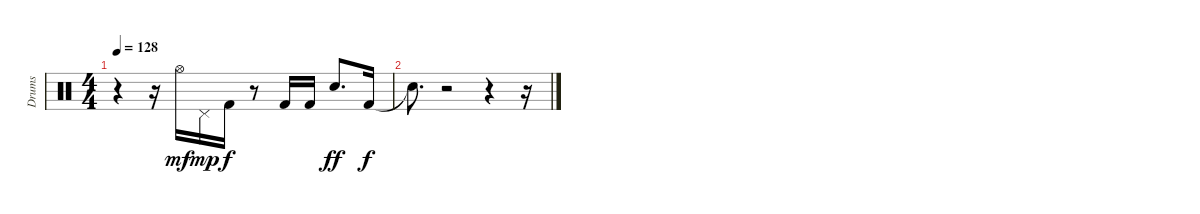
\track ("Drums                               " "Drums     ") {instrument percussion}
\staff {score}
\articulation defaults
\ts (4 4)
\tempo 128
\clef neutral
\ks c
r.4{dy ff} r.16 "Hi-Hat (open)".16{dy mf} "Pedal Hi-Hat (hit)".16{dy mp} "Kick (hit) 2".16{dy f} r.8 "Kick (hit) 2".16 "Kick (hit) 2".16 "Snare (hit) 2".8{d dy ff} "Kick (hit) 2".16{dy f} |
"Snare (hit)"{t}.8{d} r.2 r.4 r.16
